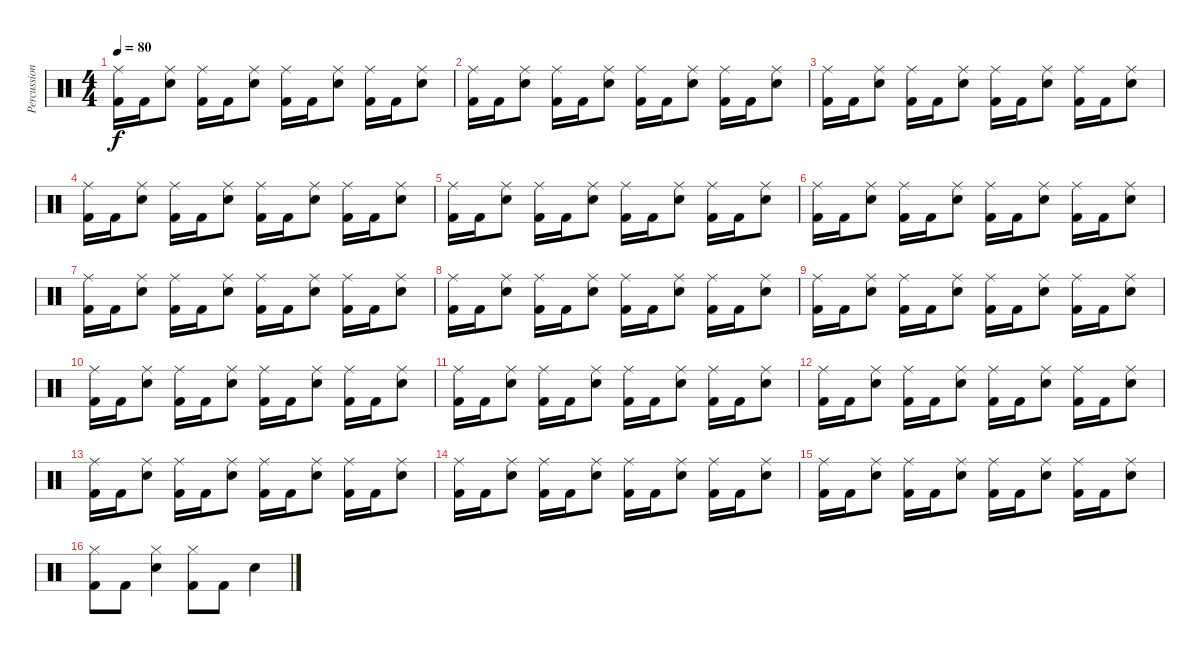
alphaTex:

\track ("Percussion" "Percussion") {instrument percussion}
\staff {score}
\articulation defaults
\ts (4 4)
\tempo 80
\clef neutral
\ks c
("Ride (middle)" "Kick (hit) 2").16{dy f} "Kick (hit) 2".16 ("Ride (middle)" "Snare (hit) 2").8 ("Ride (middle)" "Kick (hit) 2").16 "Kick (hit) 2".16 ("Ride (middle)" "Snare (hit) 2").8 ("Ride (middle)" "Kick (hit) 2").16 "Kick (hit) 2".16 ("Ride (middle)" "Snare (hit) 2").8 ("Ride (middle)" "Kick (hit) 2").16 "Kick (hit) 2".16 ("Ride (middle)" "Snare (hit) 2").8 |
("Ride (middle)" "Kick (hit) 2").16 "Kick (hit) 2".16 ("Ride (middle)" "Snare (hit) 2").8 ("Ride (middle)" "Kick (hit) 2").16 "Kick (hit) 2".16 ("Ride (middle)" "Snare (hit) 2").8 ("Ride (middle)" "Kick (hit) 2").16 "Kick (hit) 2".16 ("Ride (middle)" "Snare (hit) 2").8 ("Ride (middle)" "Kick (hit) 2").16 "Kick (hit) 2".16 ("Ride (middle)" "Snare (hit) 2").8 |
("Ride (middle)" "Kick (hit) 2").16 "Kick (hit) 2".16 ("Ride (middle)" "Snare (hit) 2").8 ("Ride (middle)" "Kick (hit) 2").16 "Kick (hit) 2".16 ("Ride (middle)" "Snare (hit) 2").8 ("Ride (middle)" "Kick (hit) 2").16 "Kick (hit) 2".16 ("Ride (middle)" "Snare (hit) 2").8 ("Ride (middle)" "Kick (hit) 2").16 "Kick (hit) 2".16 ("Ride (middle)" "Snare (hit) 2").8 |
("Ride (middle)" "Kick (hit) 2").16 "Kick (hit) 2".16 ("Ride (middle)" "Snare (hit) 2").8 ("Ride (middle)" "Kick (hit) 2").16 "Kick (hit) 2".16 ("Ride (middle)" "Snare (hit) 2").8 ("Ride (middle)" "Kick (hit) 2").16 "Kick (hit) 2".16 ("Ride (middle)" "Snare (hit) 2").8 ("Ride (middle)" "Kick (hit) 2").16 "Kick (hit) 2".16 ("Ride (middle)" "Snare (hit) 2").8 |
("Ride (middle)" "Kick (hit) 2").16 "Kick (hit) 2".16 ("Ride (middle)" "Snare (hit) 2").8 ("Ride (middle)" "Kick (hit) 2").16 "Kick (hit) 2".16 ("Ride (middle)" "Snare (hit) 2").8 ("Ride (middle)" "Kick (hit) 2").16 "Kick (hit) 2".16 ("Ride (middle)" "Snare (hit) 2").8 ("Ride (middle)" "Kick (hit) 2").16 "Kick (hit) 2".16 ("Ride (middle)" "Snare (hit) 2").8 |
("Ride (middle)" "Kick (hit) 2").16 "Kick (hit) 2".16 ("Ride (middle)" "Snare (hit) 2").8 ("Ride (middle)" "Kick (hit) 2").16 "Kick (hit) 2".16 ("Ride (middle)" "Snare (hit) 2").8 ("Ride (middle)" "Kick (hit) 2").16 "Kick (hit) 2".16 ("Ride (middle)" "Snare (hit) 2").8 ("Ride (middle)" "Kick (hit) 2").16 "Kick (hit) 2".16 ("Ride (middle)" "Snare (hit) 2").8 |
("Ride (middle)" "Kick (hit) 2").16 "Kick (hit) 2".16 ("Ride (middle)" "Snare (hit) 2").8 ("Ride (middle)" "Kick (hit) 2").16 "Kick (hit) 2".16 ("Ride (middle)" "Snare (hit) 2").8 ("Ride (middle)" "Kick (hit) 2").16 "Kick (hit) 2".16 ("Ride (middle)" "Snare (hit) 2").8 ("Ride (middle)" "Kick (hit) 2").16 "Kick (hit) 2".16 ("Ride (middle)" "Snare (hit) 2").8 |
("Ride (middle)" "Kick (hit) 2").16 "Kick (hit) 2".16 ("Ride (middle)" "Snare (hit) 2").8 ("Ride (middle)" "Kick (hit) 2").16 "Kick (hit) 2".16 ("Ride (middle)" "Snare (hit) 2").8 ("Ride (middle)" "Kick (hit) 2").16 "Kick (hit) 2".16 ("Ride (middle)" "Snare (hit) 2").8 ("Ride (middle)" "Kick (hit) 2").16 "Kick (hit) 2".16 ("Ride (middle)" "Snare (hit) 2").8 |
("Ride (middle)" "Kick (hit) 2").16 "Kick (hit) 2".16 ("Ride (middle)" "Snare (hit) 2").8 ("Ride (middle)" "Kick (hit) 2").16 "Kick (hit) 2".16 ("Ride (middle)" "Snare (hit) 2").8 ("Ride (middle)" "Kick (hit) 2").16 "Kick (hit) 2".16 ("Ride (middle)" "Snare (hit) 2").8 ("Ride (middle)" "Kick (hit) 2").16 "Kick (hit) 2".16 ("Ride (middle)" "Snare (hit) 2").8 |
("Ride (middle)" "Kick (hit) 2").16 "Kick (hit) 2".16 ("Ride (middle)" "Snare (hit) 2").8 ("Ride (middle)" "Kick (hit) 2").16 "Kick (hit) 2".16 ("Ride (middle)" "Snare (hit) 2").8 ("Ride (middle)" "Kick (hit) 2").16 "Kick (hit) 2".16 ("Ride (middle)" "Snare (hit) 2").8 ("Ride (middle)" "Kick (hit) 2").16 "Kick (hit) 2".16 ("Ride (middle)" "Snare (hit) 2").8 |
("Ride (middle)" "Kick (hit) 2").16 "Kick (hit) 2".16 ("Ride (middle)" "Snare (hit) 2").8 ("Ride (middle)" "Kick (hit) 2").16 "Kick (hit) 2".16 ("Ride (middle)" "Snare (hit) 2").8 ("Ride (middle)" "Kick (hit) 2").16 "Kick (hit) 2".16 ("Ride (middle)" "Snare (hit) 2").8 ("Ride (middle)" "Kick (hit) 2").16 "Kick (hit) 2".16 ("Ride (middle)" "Snare (hit) 2").8 |
("Ride (middle)" "Kick (hit) 2").16 "Kick (hit) 2".16 ("Ride (middle)" "Snare (hit) 2").8 ("Ride (middle)" "Kick (hit) 2").16 "Kick (hit) 2".16 ("Ride (middle)" "Snare (hit) 2").8 ("Ride (middle)" "Kick (hit) 2").16 "Kick (hit) 2".16 ("Ride (middle)" "Snare (hit) 2").8 ("Ride (middle)" "Kick (hit) 2").16 "Kick (hit) 2".16 ("Ride (middle)" "Snare (hit) 2").8 |
("Ride (middle)" "Kick (hit) 2").16 "Kick (hit) 2".16 ("Ride (middle)" "Snare (hit) 2").8 ("Ride (middle)" "Kick (hit) 2").16 "Kick (hit) 2".16 ("Ride (middle)" "Snare (hit) 2").8 ("Ride (middle)" "Kick (hit) 2").16 "Kick (hit) 2".16 ("Ride (middle)" "Snare (hit) 2").8 ("Ride (middle)" "Kick (hit) 2").16 "Kick (hit) 2".16 ("Ride (middle)" "Snare (hit) 2").8 |
("Ride (middle)" "Kick (hit) 2").16 "Kick (hit) 2".16 ("Ride (middle)" "Snare (hit) 2").8 ("Ride (middle)" "Kick (hit) 2").16 "Kick (hit) 2".16 ("Ride (middle)" "Snare (hit) 2").8 ("Ride (middle)" "Kick (hit) 2").16 "Kick (hit) 2".16 ("Ride (middle)" "Snare (hit) 2").8 ("Ride (middle)" "Kick (hit) 2").16 "Kick (hit) 2".16 ("Ride (middle)" "Snare (hit) 2").8 |
("Ride (middle)" "Kick (hit) 2").16 "Kick (hit) 2".16 ("Ride (middle)" "Snare (hit) 2").8 ("Ride (middle)" "Kick (hit) 2").16 "Kick (hit) 2".16 ("Ride (middle)" "Snare (hit) 2").8 ("Ride (middle)" "Kick (hit) 2").16 "Kick (hit) 2".16 ("Ride (middle)" "Snare (hit) 2").8 ("Ride (middle)" "Kick (hit) 2").16 "Kick (hit) 2".16 ("Ride (middle)" "Snare (hit) 2").8 |
("Hi-Hat (closed)" "Kick (hit) 2").8 "Kick (hit) 2".8 ("Hi-Hat (closed)" "Snare (hit) 2").4 ("Hi-Hat (closed)" "Kick (hit) 2").8 "Kick (hit) 2".8 "Snare (hit) 2".4
